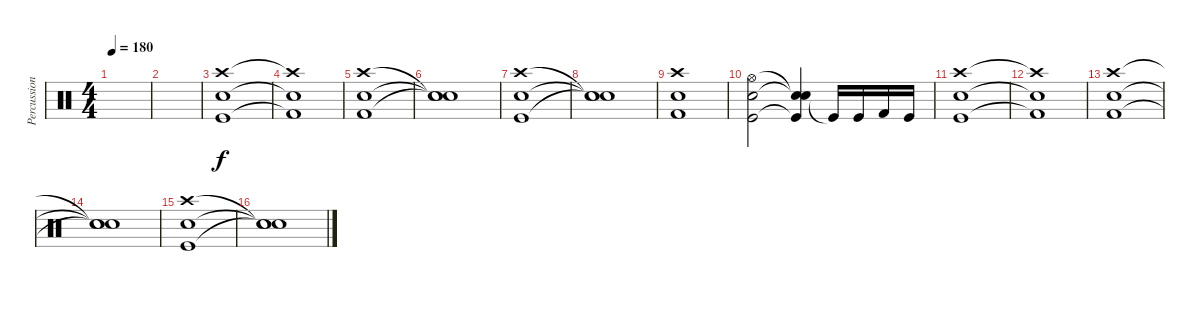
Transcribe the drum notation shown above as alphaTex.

\track ("Percussions" "Percussion") {instrument percussion}
\staff {score}
\articulation defaults
\ts (4 4)
\tempo 180
\clef neutral
\ks c
|
|
("Crash high (hit)" "Electric Snare (hit)" "Kick (hit)").1 |
("Crash high (hit)"{t} "Electric Snare (hit)"{t} "Kick (hit) 2"{t}).1 |
("Crash high (hit)" "Electric Snare (hit)" "Kick (hit) 2").1 |
("Snare (hit)"{t} "Snare (hit)"{t} "Snare (hit)"{t}).1 |
("Crash high (hit)" "Electric Snare (hit)" "Kick (hit)").1 |
("Snare (hit)"{t} "Snare (hit)"{t} "Snare (hit)"{t}).1 |
("Crash high (hit)" "Electric Snare (hit)" "Kick (hit) 2").1 |
("Hi-Hat (open)" "Electric Snare (hit)" "Kick (hit)").2 ("Snare (hit)"{t} "Snare (hit)"{t} "Kick (hit)"{t}).4 "Kick (hit)"{t}.16 "Kick (hit)".16 "Kick (hit) 2".16 "Kick (hit)".16 |
("Crash high (hit)" "Electric Snare (hit)" "Kick (hit)").1 |
("Crash high (hit)"{t} "Electric Snare (hit)"{t} "Kick (hit) 2"{t}).1 |
("Crash high (hit)" "Electric Snare (hit)" "Kick (hit) 2").1 |
("Snare (hit)"{t} "Snare (hit)"{t} "Snare (hit)"{t}).1 |
("Crash high (hit)" "Electric Snare (hit)" "Kick (hit)").1 |
("Snare (hit)"{t} "Snare (hit)"{t} "Snare (hit)"{t}).1
